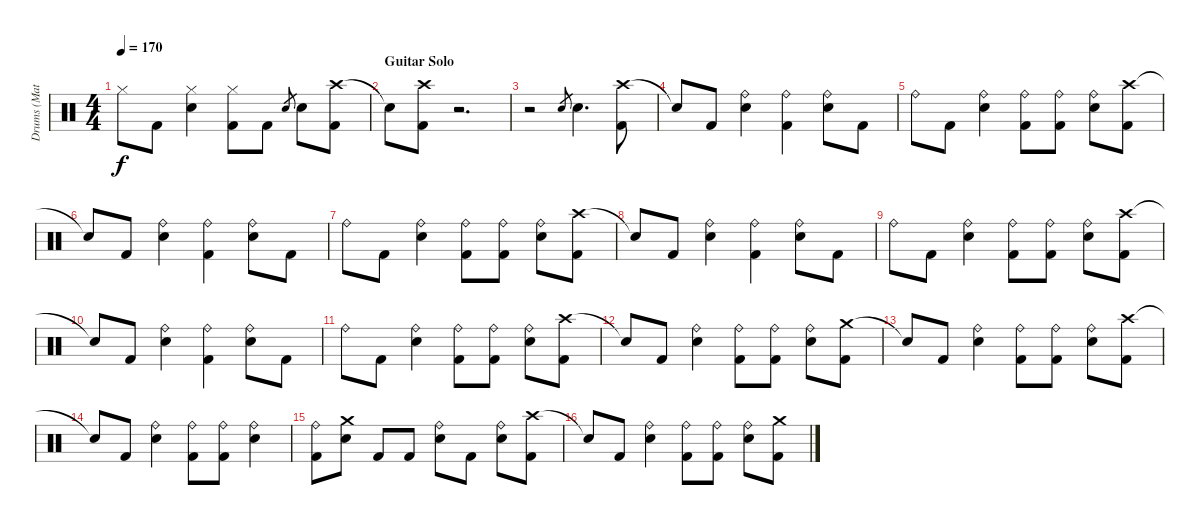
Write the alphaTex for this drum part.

\track ("Drums (Matt)" "Drums (Mat") {instrument percussion}
\staff {score}
\articulation defaults
\ts (4 4)
\tempo 170
\clef neutral
\ks c "Hi-Hat (closed)".8{dy f} "Kick (hit) 2".8
("Hi-Hat (closed)" "Snare (hit) 2").4 ("Hi-Hat (closed)" "Kick (hit) 2").8 "Kick (hit) 2".8 "Snare (hit) 2".8{gr} "Snare (hit) 2".8 ("Crash high (hit)" "Kick (hit) 2").8 |
\section ("" "Guitar Solo")
"Snare (hit)"{t}.8 ("Crash high (hit)" "Kick (hit) 2").8 r.2{d} |
r.2 "Snare (hit) 2".8{gr} "Snare (hit) 2".4{d} ("Crash high (hit)" "Kick (hit) 2").8 |
"Snare (hit)"{t}.8 "Kick (hit) 2".8 ("Ride (bell)" "Snare (hit) 2").4 ("Ride (bell)" "Kick (hit) 2").4 ("Ride (bell)" "Snare (hit) 2").8 "Kick (hit) 2".8 |
"Ride (bell)".8 "Kick (hit) 2".8 ("Ride (bell)" "Snare (hit) 2").4 ("Ride (bell)" "Kick (hit) 2").8 ("Ride (bell)" "Kick (hit) 2").8 ("Ride (bell)" "Snare (hit) 2").8 ("Crash high (hit)" "Kick (hit) 2").8 |
"Snare (hit)"{t}.8 "Kick (hit) 2".8 ("Ride (bell)" "Snare (hit) 2").4 ("Ride (bell)" "Kick (hit) 2").4 ("Ride (bell)" "Snare (hit) 2").8 "Kick (hit) 2".8 |
"Ride (bell)".8 "Kick (hit) 2".8 ("Ride (bell)" "Snare (hit) 2").4 ("Ride (bell)" "Kick (hit) 2").8 ("Ride (bell)" "Kick (hit) 2").8 ("Ride (bell)" "Snare (hit) 2").8 ("Crash high (hit)" "Kick (hit) 2").8 |
"Snare (hit)"{t}.8 "Kick (hit) 2".8 ("Ride (bell)" "Snare (hit) 2").4 ("Ride (bell)" "Kick (hit) 2").4 ("Ride (bell)" "Snare (hit) 2").8 "Kick (hit) 2".8 |
"Ride (bell)".8 "Kick (hit) 2".8 ("Ride (bell)" "Snare (hit) 2").4 ("Ride (bell)" "Kick (hit) 2").8 ("Ride (bell)" "Kick (hit) 2").8 ("Ride (bell)" "Snare (hit) 2").8 ("Crash high (hit)" "Kick (hit) 2").8 |
"Snare (hit)"{t}.8 "Kick (hit) 2".8 ("Ride (bell)" "Snare (hit) 2").4 ("Ride (bell)" "Kick (hit) 2").4 ("Ride (bell)" "Snare (hit) 2").8 "Kick (hit) 2".8 |
"Ride (bell)".8 "Kick (hit) 2".8 ("Ride (bell)" "Snare (hit) 2").4 ("Ride (bell)" "Kick (hit) 2").8 ("Ride (bell)" "Kick (hit) 2").8 ("Ride (bell)" "Snare (hit) 2").8 ("Crash high (hit)" "Kick (hit) 2").8 |
"Snare (hit)"{t}.8 "Kick (hit) 2".8 ("Ride (bell)" "Snare (hit) 2").4 ("Ride (bell)" "Kick (hit) 2").8 ("Ride (bell)" "Kick (hit) 2").8 ("Ride (bell)" "Snare (hit) 2").8 ("Crash medium (hit)" "Kick (hit) 2").8 |
"Snare (hit)"{t}.8 "Kick (hit) 2".8 ("Ride (bell)" "Snare (hit) 2").4 ("Ride (bell)" "Kick (hit) 2").8 ("Ride (bell)" "Kick (hit) 2").8 ("Ride (bell)" "Snare (hit) 2").8 ("Crash high (hit)" "Kick (hit) 2").8 |
"Snare (hit)"{t}.8 "Kick (hit) 2".8 ("Ride (bell)" "Snare (hit) 2").4 ("Ride (bell)" "Kick (hit) 2").8 ("Ride (bell)" "Kick (hit) 2").8 ("Ride (bell)" "Snare (hit) 2").4 |
("Ride (bell)" "Kick (hit) 2").8 ("Crash medium (hit)" "Snare (hit) 2").8 "Kick (hit) 2".8 "Kick (hit) 2".8 ("Ride (bell)" "Snare (hit) 2").8 "Kick (hit) 2".8 ("Ride (bell)" "Snare (hit) 2").8 ("Crash high (hit)" "Kick (hit) 2").8 |
"Snare (hit)"{t}.8 "Kick (hit) 2".8 ("Ride (bell)" "Snare (hit) 2").4 ("Ride (bell)" "Kick (hit) 2").8 ("Ride (bell)" "Kick (hit) 2").8 ("Ride (bell)" "Snare (hit) 2").8 ("Crash medium (hit)" "Kick (hit) 2").8
